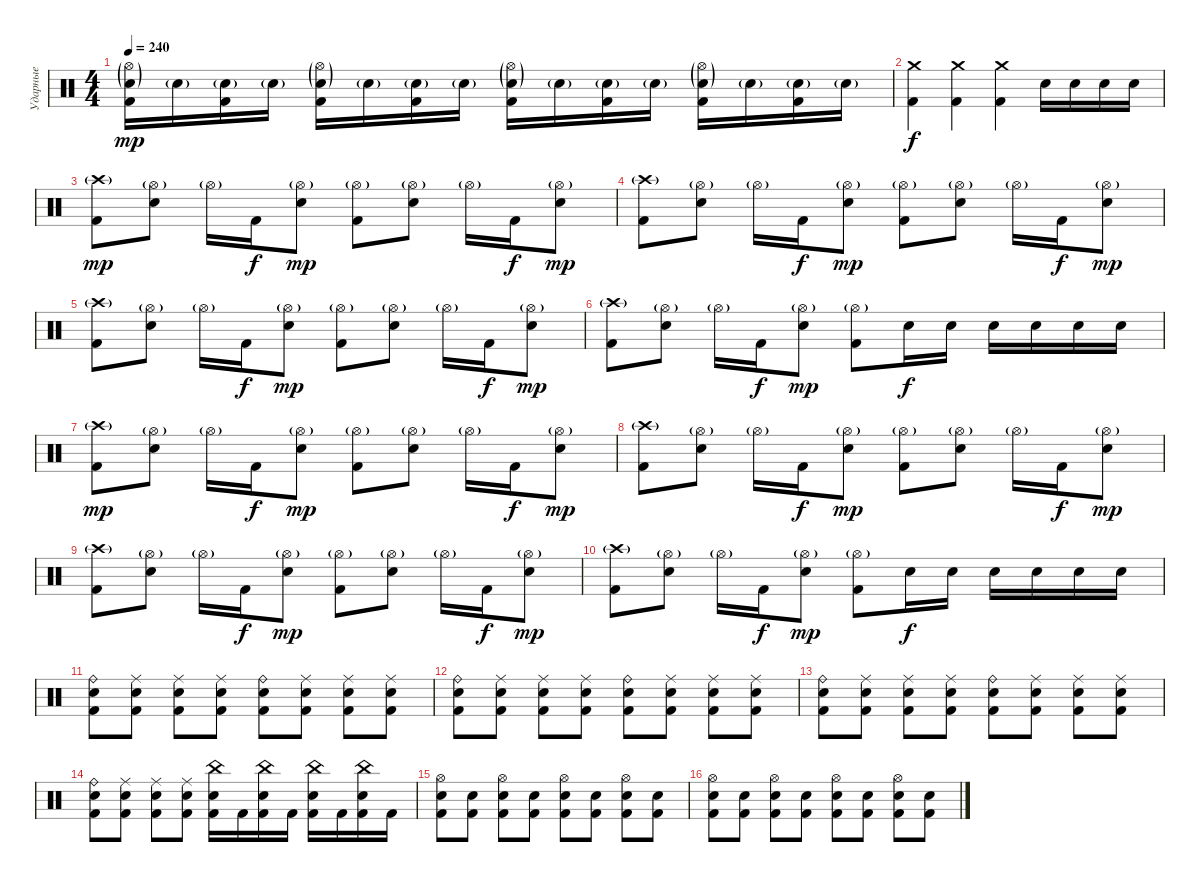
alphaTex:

\track ("Ударные" "Ударные") {instrument percussion}
\staff {score}
\articulation defaults
\ts (4 4)
\tempo 240
\clef neutral
\ks c
("Hi-Hat (open)"{g} "Electric Snare (hit)"{g} "Kick (hit) 2").16{dy mp} "Electric Snare (hit)"{g}.16 ("Electric Snare (hit)"{g} "Kick (hit) 2").16 "Electric Snare (hit)"{g}.16 ("Hi-Hat (open)"{g} "Electric Snare (hit)"{g} "Kick (hit) 2").16 "Electric Snare (hit)"{g}.16 ("Electric Snare (hit)"{g} "Kick (hit) 2").16 "Electric Snare (hit)"{g}.16 ("Hi-Hat (open)"{g} "Electric Snare (hit)"{g} "Kick (hit) 2").16 "Electric Snare (hit)"{g}.16 ("Electric Snare (hit)"{g} "Kick (hit) 2").16 "Electric Snare (hit)"{g}.16 ("Hi-Hat (open)"{g} "Electric Snare (hit)"{g} "Kick (hit) 2").16 "Electric Snare (hit)"{g}.16 ("Electric Snare (hit)"{g} "Kick (hit) 2").16 "Electric Snare (hit)"{g}.16 |
("Crash medium (hit)" "Kick (hit) 2").4{dy f} ("Crash medium (hit)" "Kick (hit) 2").4 ("Crash medium (hit)" "Kick (hit) 2").4 "Electric Snare (hit)".16 "Electric Snare (hit)".16 "Electric Snare (hit)".16 "Electric Snare (hit)".16 |
("Crash high (hit)"{g} "Kick (hit) 2").8{dy mp} ("Hi-Hat (open)"{g} "Electric Snare (hit)").8 "Hi-Hat (open)"{g}.16 "Kick (hit) 2".16{dy f} ("Hi-Hat (open)"{g} "Electric Snare (hit)").8{dy mp} ("Hi-Hat (open)"{g} "Kick (hit) 2").8 ("Hi-Hat (open)"{g} "Electric Snare (hit)").8 "Hi-Hat (open)"{g}.16 "Kick (hit) 2".16{dy f} ("Hi-Hat (open)"{g} "Electric Snare (hit)").8{dy mp} |
("Crash high (hit)"{g} "Kick (hit) 2").8 ("Hi-Hat (open)"{g} "Electric Snare (hit)").8 "Hi-Hat (open)"{g}.16 "Kick (hit) 2".16{dy f} ("Hi-Hat (open)"{g} "Electric Snare (hit)").8{dy mp} ("Hi-Hat (open)"{g} "Kick (hit) 2").8 ("Hi-Hat (open)"{g} "Electric Snare (hit)").8 "Hi-Hat (open)"{g}.16 "Kick (hit) 2".16{dy f} ("Hi-Hat (open)"{g} "Electric Snare (hit)").8{dy mp} |
("Crash high (hit)"{g} "Kick (hit) 2").8 ("Hi-Hat (open)"{g} "Electric Snare (hit)").8 "Hi-Hat (open)"{g}.16 "Kick (hit) 2".16{dy f} ("Hi-Hat (open)"{g} "Electric Snare (hit)").8{dy mp} ("Hi-Hat (open)"{g} "Kick (hit) 2").8 ("Hi-Hat (open)"{g} "Electric Snare (hit)").8 "Hi-Hat (open)"{g}.16 "Kick (hit) 2".16{dy f} ("Hi-Hat (open)"{g} "Electric Snare (hit)").8{dy mp} |
("Crash high (hit)"{g} "Kick (hit) 2").8 ("Hi-Hat (open)"{g} "Electric Snare (hit)").8 "Hi-Hat (open)"{g}.16 "Kick (hit) 2".16{dy f} ("Hi-Hat (open)"{g} "Electric Snare (hit)").8{dy mp} ("Hi-Hat (open)"{g} "Kick (hit) 2").8 "Electric Snare (hit)".16{dy f} "Electric Snare (hit)".16 "Electric Snare (hit)".16 "Electric Snare (hit)".16 "Electric Snare (hit)".16 "Electric Snare (hit)".16 |
("Crash high (hit)"{g} "Kick (hit) 2").8{dy mp} ("Hi-Hat (open)"{g} "Electric Snare (hit)").8 "Hi-Hat (open)"{g}.16 "Kick (hit) 2".16{dy f} ("Hi-Hat (open)"{g} "Electric Snare (hit)").8{dy mp} ("Hi-Hat (open)"{g} "Kick (hit) 2").8 ("Hi-Hat (open)"{g} "Electric Snare (hit)").8 "Hi-Hat (open)"{g}.16 "Kick (hit) 2".16{dy f} ("Hi-Hat (open)"{g} "Electric Snare (hit)").8{dy mp} |
("Crash high (hit)"{g} "Kick (hit) 2").8 ("Hi-Hat (open)"{g} "Electric Snare (hit)").8 "Hi-Hat (open)"{g}.16 "Kick (hit) 2".16{dy f} ("Hi-Hat (open)"{g} "Electric Snare (hit)").8{dy mp} ("Hi-Hat (open)"{g} "Kick (hit) 2").8 ("Hi-Hat (open)"{g} "Electric Snare (hit)").8 "Hi-Hat (open)"{g}.16 "Kick (hit) 2".16{dy f} ("Hi-Hat (open)"{g} "Electric Snare (hit)").8{dy mp} |
("Crash high (hit)"{g} "Kick (hit) 2").8 ("Hi-Hat (open)"{g} "Electric Snare (hit)").8 "Hi-Hat (open)"{g}.16 "Kick (hit) 2".16{dy f} ("Hi-Hat (open)"{g} "Electric Snare (hit)").8{dy mp} ("Hi-Hat (open)"{g} "Kick (hit) 2").8 ("Hi-Hat (open)"{g} "Electric Snare (hit)").8 "Hi-Hat (open)"{g}.16 "Kick (hit) 2".16{dy f} ("Hi-Hat (open)"{g} "Electric Snare (hit)").8{dy mp} |
("Crash high (hit)"{g} "Kick (hit) 2").8 ("Hi-Hat (open)"{g} "Electric Snare (hit)").8 "Hi-Hat (open)"{g}.16 "Kick (hit) 2".16{dy f} ("Hi-Hat (open)"{g} "Electric Snare (hit)").8{dy mp} ("Hi-Hat (open)"{g} "Kick (hit) 2").8 "Electric Snare (hit)".16{dy f} "Electric Snare (hit)".16 "Electric Snare (hit)".16 "Electric Snare (hit)".16 "Electric Snare (hit)".16 "Electric Snare (hit)".16 |
("Ride (bell)" "Electric Snare (hit)" "Kick (hit) 2").8 ("Ride (middle)" "Electric Snare (hit)" "Kick (hit) 2").8 ("Ride (middle)" "Electric Snare (hit)" "Kick (hit) 2").8 ("Ride (middle)" "Electric Snare (hit)" "Kick (hit) 2").8 ("Ride (bell)" "Electric Snare (hit)" "Kick (hit) 2").8 ("Ride (middle)" "Electric Snare (hit)" "Kick (hit) 2").8 ("Ride (middle)" "Electric Snare (hit)" "Kick (hit) 2").8 ("Ride (middle)" "Electric Snare (hit)" "Kick (hit) 2").8 |
("Ride (bell)" "Electric Snare (hit)" "Kick (hit) 2").8 ("Ride (middle)" "Electric Snare (hit)" "Kick (hit) 2").8 ("Ride (middle)" "Electric Snare (hit)" "Kick (hit) 2").8 ("Ride (middle)" "Electric Snare (hit)" "Kick (hit) 2").8 ("Ride (bell)" "Electric Snare (hit)" "Kick (hit) 2").8 ("Ride (middle)" "Electric Snare (hit)" "Kick (hit) 2").8 ("Ride (middle)" "Electric Snare (hit)" "Kick (hit) 2").8 ("Ride (middle)" "Electric Snare (hit)" "Kick (hit) 2").8 |
("Ride (bell)" "Electric Snare (hit)" "Kick (hit) 2").8 ("Ride (middle)" "Electric Snare (hit)" "Kick (hit) 2").8 ("Ride (middle)" "Electric Snare (hit)" "Kick (hit) 2").8 ("Ride (middle)" "Electric Snare (hit)" "Kick (hit) 2").8 ("Ride (bell)" "Electric Snare (hit)" "Kick (hit) 2").8 ("Ride (middle)" "Electric Snare (hit)" "Kick (hit) 2").8 ("Ride (middle)" "Electric Snare (hit)" "Kick (hit) 2").8 ("Ride (middle)" "Electric Snare (hit)" "Kick (hit) 2").8 |
("Ride (bell)" "Electric Snare (hit)" "Kick (hit) 2").8 ("Ride (middle)" "Electric Snare (hit)" "Kick (hit) 2").8 ("Ride (middle)" "Electric Snare (hit)" "Kick (hit) 2").8 ("Ride (middle)" "Electric Snare (hit)" "Kick (hit) 2").8 ("China (hit)" "Electric Snare (hit)" "Kick (hit) 2").16 "Kick (hit) 2".16 ("China (hit)" "Electric Snare (hit)" "Kick (hit) 2").16 "Kick (hit) 2".16 ("China (hit)" "Electric Snare (hit)" "Kick (hit) 2").16 "Kick (hit) 2".16 ("China (hit)" "Electric Snare (hit)" "Kick (hit) 2").16 "Kick (hit) 2".16 |
("Hi-Hat (open)" "Electric Snare (hit)" "Kick (hit) 2").8 ("Electric Snare (hit)" "Kick (hit) 2").8 ("Hi-Hat (open)" "Electric Snare (hit)" "Kick (hit) 2").8 ("Electric Snare (hit)" "Kick (hit) 2").8 ("Hi-Hat (open)" "Electric Snare (hit)" "Kick (hit) 2").8 ("Electric Snare (hit)" "Kick (hit) 2").8 ("Hi-Hat (open)" "Electric Snare (hit)" "Kick (hit) 2").8 ("Electric Snare (hit)" "Kick (hit) 2").8 |
("Hi-Hat (open)" "Electric Snare (hit)" "Kick (hit) 2").8 ("Electric Snare (hit)" "Kick (hit) 2").8 ("Hi-Hat (open)" "Electric Snare (hit)" "Kick (hit) 2").8 ("Electric Snare (hit)" "Kick (hit) 2").8 ("Hi-Hat (open)" "Electric Snare (hit)" "Kick (hit) 2").8 ("Electric Snare (hit)" "Kick (hit) 2").8 ("Hi-Hat (open)" "Electric Snare (hit)" "Kick (hit) 2").8 ("Electric Snare (hit)" "Kick (hit) 2").8
